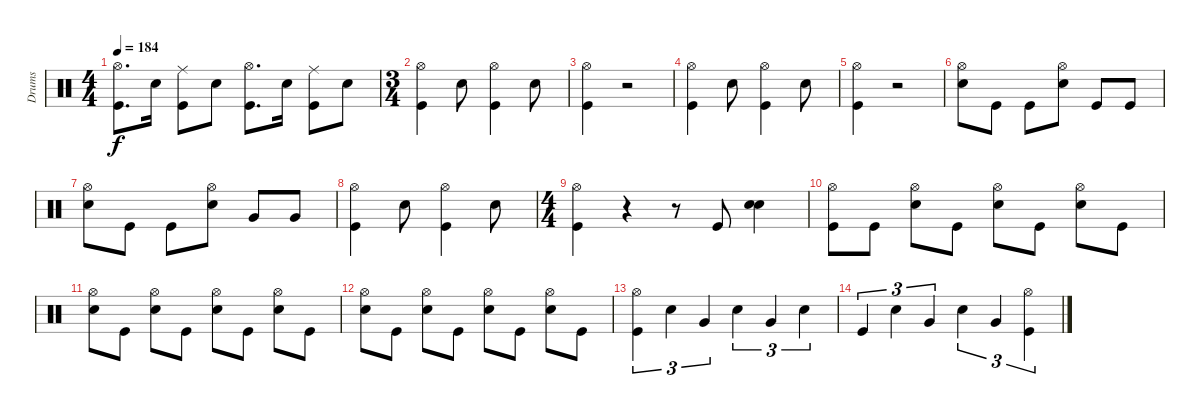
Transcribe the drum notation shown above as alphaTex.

\track (" Drums" " Drums") {instrument percussion}
\staff {score}
\articulation defaults
\ts (4 4)
\tempo 184
\clef neutral
\ks c
("Kick (hit)" "Hi-Hat (open)").8{d dy f} "Snare (hit) 2".16 ("Kick (hit)" "Ride (middle)").8 "Snare (hit) 2".8 ("Kick (hit)" "Hi-Hat (open)").8{d} "Snare (hit) 2".16 ("Kick (hit)" "Ride (middle)").8 "Snare (hit) 2".8 |
\ts (3 4)
("Kick (hit)" "Hi-Hat (open)").4 "Snare (hit) 2".8 ("Kick (hit)" "Hi-Hat (open)").4 "Snare (hit) 2".8 |
("Kick (hit)" "Hi-Hat (open)").4 r.2 |
("Kick (hit)" "Hi-Hat (open)").4 "Snare (hit) 2".8 ("Kick (hit)" "Hi-Hat (open)").4 "Snare (hit) 2".8 |
("Kick (hit)" "Hi-Hat (open)").4 r.2 |
("Hi-Hat (open)" "Snare (hit) 2").8 "Kick (hit)".8 "Kick (hit)".8 ("Snare (hit) 2" "Hi-Hat (open)").8 "Kick (hit)".8 "Kick (hit)".8 |
("Snare (hit) 2" "Hi-Hat (open)").8 "Kick (hit)".8 "Kick (hit)".8 ("Snare (hit) 2" "Hi-Hat (open)").8 "Very Low Tom (hit)".8 "Very Low Tom (hit)".8 |
("Kick (hit)" "Hi-Hat (open)").4 "Snare (hit) 2".8 ("Kick (hit)" "Hi-Hat (open)").4 "Snare (hit) 2".8 |
\ts (4 4)
("Kick (hit)" "Hi-Hat (open)").4 r.4 r.8 "Kick (hit)".8 ("Snare (hit) 2" "Snare (hit) 2").4 |
("Hi-Hat (open)" "Kick (hit)").8 "Kick (hit)".8 ("Snare (hit) 2" "Hi-Hat (open)").8 "Kick (hit)".8 ("Snare (hit) 2" "Hi-Hat (open)").8 "Kick (hit)".8 ("Snare (hit) 2" "Hi-Hat (open)").8 "Kick (hit)".8 |
("Snare (hit) 2" "Hi-Hat (open)").8 "Kick (hit)".8 ("Snare (hit) 2" "Hi-Hat (open)").8 "Kick (hit)".8 ("Snare (hit) 2" "Hi-Hat (open)").8 "Kick (hit)".8 ("Snare (hit) 2" "Hi-Hat (open)").8 "Kick (hit)".8 |
("Snare (hit) 2" "Hi-Hat (open)").8 "Kick (hit)".8 ("Snare (hit) 2" "Hi-Hat (open)").8 "Kick (hit)".8 ("Snare (hit) 2" "Hi-Hat (open)").8 "Kick (hit)".8 ("Snare (hit) 2" "Hi-Hat (open)").8 "Kick (hit)".8 |
("Kick (hit)" "Hi-Hat (open)").4{tu (3 2)} "Snare (hit) 2".4{tu (3 2)} "Very Low Tom (hit)".4{tu (3 2)} "Snare (hit) 2".4{tu (3 2)} "Very Low Tom (hit)".4{tu (3 2)} "Snare (hit) 2".4{tu (3 2)} |
"Kick (hit)".4{tu (3 2)} "Snare (hit) 2".4{tu (3 2)} "Very Low Tom (hit)".4{tu (3 2)} "Snare (hit) 2".4{tu (3 2)} "Very Low Tom (hit)".4{tu (3 2)} ("Kick (hit)" "Hi-Hat (open)").4{tu (3 2)}
